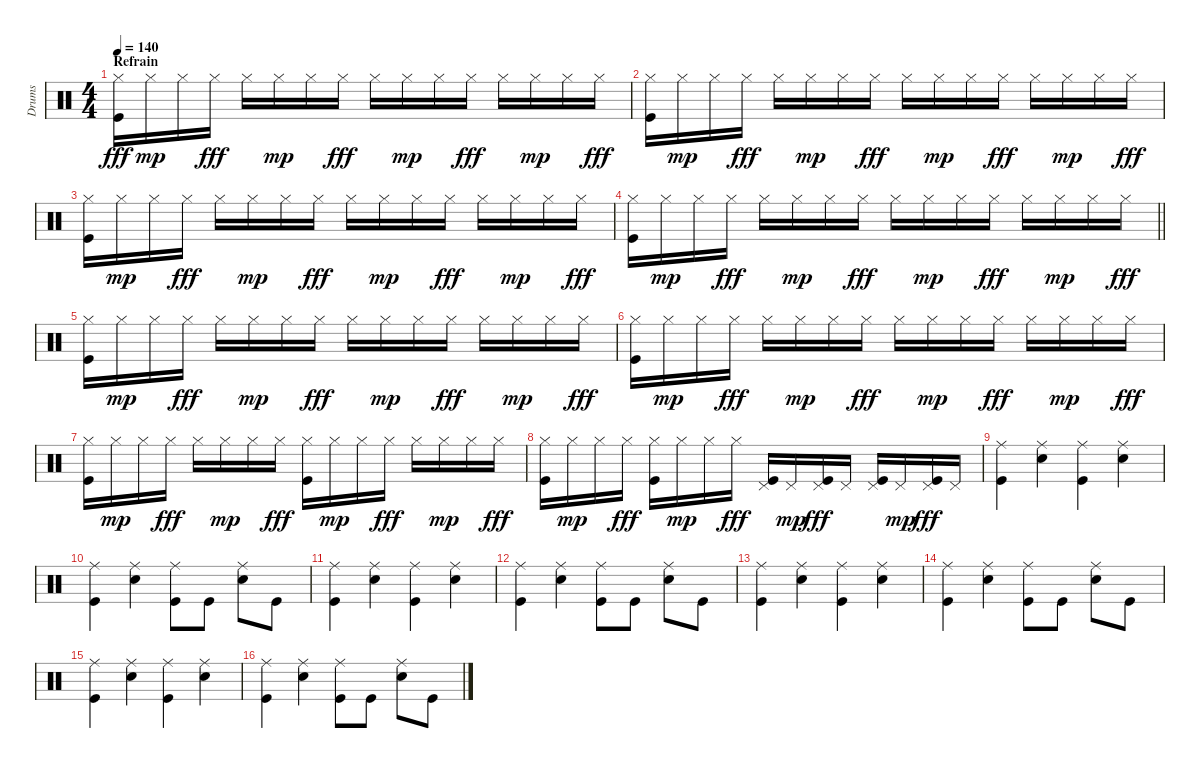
\track ("Drums" "Drums") {instrument percussion}
\staff {score}
\articulation defaults
\ts (4 4)
\section ("" "Refrain")
\tempo 140
\clef neutral
\ks c
("Hi-Hat (closed)" "Kick (hit)").16{dy fff} "Hi-Hat (closed)".16{dy mp} "Hi-Hat (closed)".16 "Hi-Hat (closed)".16{dy fff} "Hi-Hat (closed)".16 "Hi-Hat (closed)".16{dy mp} "Hi-Hat (closed)".16 "Hi-Hat (closed)".16{dy fff} "Hi-Hat (closed)".16 "Hi-Hat (closed)".16{dy mp} "Hi-Hat (closed)".16 "Hi-Hat (closed)".16{dy fff} "Hi-Hat (closed)".16 "Hi-Hat (closed)".16{dy mp} "Hi-Hat (closed)".16 "Hi-Hat (closed)".16{dy fff} |
("Hi-Hat (closed)" "Kick (hit)").16 "Hi-Hat (closed)".16{dy mp} "Hi-Hat (closed)".16 "Hi-Hat (closed)".16{dy fff} "Hi-Hat (closed)".16 "Hi-Hat (closed)".16{dy mp} "Hi-Hat (closed)".16 "Hi-Hat (closed)".16{dy fff} "Hi-Hat (closed)".16 "Hi-Hat (closed)".16{dy mp} "Hi-Hat (closed)".16 "Hi-Hat (closed)".16{dy fff} "Hi-Hat (closed)".16 "Hi-Hat (closed)".16{dy mp} "Hi-Hat (closed)".16 "Hi-Hat (closed)".16{dy fff} |
("Hi-Hat (closed)" "Kick (hit)").16 "Hi-Hat (closed)".16{dy mp} "Hi-Hat (closed)".16 "Hi-Hat (closed)".16{dy fff} "Hi-Hat (closed)".16 "Hi-Hat (closed)".16{dy mp} "Hi-Hat (closed)".16 "Hi-Hat (closed)".16{dy fff} "Hi-Hat (closed)".16 "Hi-Hat (closed)".16{dy mp} "Hi-Hat (closed)".16 "Hi-Hat (closed)".16{dy fff} "Hi-Hat (closed)".16 "Hi-Hat (closed)".16{dy mp} "Hi-Hat (closed)".16 "Hi-Hat (closed)".16{dy fff} |
\barLineRight lightlight
("Hi-Hat (closed)" "Kick (hit)").16 "Hi-Hat (closed)".16{dy mp} "Hi-Hat (closed)".16 "Hi-Hat (closed)".16{dy fff} "Hi-Hat (closed)".16 "Hi-Hat (closed)".16{dy mp} "Hi-Hat (closed)".16 "Hi-Hat (closed)".16{dy fff} "Hi-Hat (closed)".16 "Hi-Hat (closed)".16{dy mp} "Hi-Hat (closed)".16 "Hi-Hat (closed)".16{dy fff} "Hi-Hat (closed)".16 "Hi-Hat (closed)".16{dy mp} "Hi-Hat (closed)".16 "Hi-Hat (closed)".16{dy fff} |
("Hi-Hat (closed)" "Kick (hit)").16 "Hi-Hat (closed)".16{dy mp} "Hi-Hat (closed)".16 "Hi-Hat (closed)".16{dy fff} "Hi-Hat (closed)".16 "Hi-Hat (closed)".16{dy mp} "Hi-Hat (closed)".16 "Hi-Hat (closed)".16{dy fff} "Hi-Hat (closed)".16 "Hi-Hat (closed)".16{dy mp} "Hi-Hat (closed)".16 "Hi-Hat (closed)".16{dy fff} "Hi-Hat (closed)".16 "Hi-Hat (closed)".16{dy mp} "Hi-Hat (closed)".16 "Hi-Hat (closed)".16{dy fff} |
("Hi-Hat (closed)" "Kick (hit)").16 "Hi-Hat (closed)".16{dy mp} "Hi-Hat (closed)".16 "Hi-Hat (closed)".16{dy fff} "Hi-Hat (closed)".16 "Hi-Hat (closed)".16{dy mp} "Hi-Hat (closed)".16 "Hi-Hat (closed)".16{dy fff} "Hi-Hat (closed)".16 "Hi-Hat (closed)".16{dy mp} "Hi-Hat (closed)".16 "Hi-Hat (closed)".16{dy fff} "Hi-Hat (closed)".16 "Hi-Hat (closed)".16{dy mp} "Hi-Hat (closed)".16 "Hi-Hat (closed)".16{dy fff} |
("Hi-Hat (closed)" "Kick (hit)").16 "Hi-Hat (closed)".16{dy mp} "Hi-Hat (closed)".16 "Hi-Hat (closed)".16{dy fff} "Hi-Hat (closed)".16 "Hi-Hat (closed)".16{dy mp} "Hi-Hat (closed)".16 "Hi-Hat (closed)".16{dy fff} ("Hi-Hat (closed)" "Kick (hit)").16 "Hi-Hat (closed)".16{dy mp} "Hi-Hat (closed)".16 "Hi-Hat (closed)".16{dy fff} "Hi-Hat (closed)".16 "Hi-Hat (closed)".16{dy mp} "Hi-Hat (closed)".16 "Hi-Hat (closed)".16{dy fff} |
("Hi-Hat (closed)" "Kick (hit)").16 "Hi-Hat (closed)".16{dy mp} "Hi-Hat (closed)".16 "Hi-Hat (closed)".16{dy fff} ("Hi-Hat (closed)" "Kick (hit)").16 "Hi-Hat (closed)".16{dy mp} "Hi-Hat (closed)".16 "Hi-Hat (closed)".16{dy fff} ("Pedal Hi-Hat (hit)" "Kick (hit)").16 "Pedal Hi-Hat (hit)".16{dy mp} ("Pedal Hi-Hat (hit)" "Kick (hit)").16{dy fff} "Pedal Hi-Hat (hit)".16 ("Pedal Hi-Hat (hit)" "Kick (hit)").16 "Pedal Hi-Hat (hit)".16{dy mp} ("Pedal Hi-Hat (hit)" "Kick (hit)").16{dy fff} "Pedal Hi-Hat (hit)".16 |
("Ride (middle)" "Kick (hit)").4 ("Ride (middle)" "Snare (hit) 2").4 ("Ride (middle)" "Kick (hit)").4 ("Ride (middle)" "Snare (hit) 2").4 |
("Ride (middle)" "Kick (hit)").4 ("Ride (middle)" "Snare (hit) 2").4 ("Ride (middle)" "Kick (hit)").8 "Kick (hit)".8 ("Ride (middle)" "Snare (hit) 2").8 "Kick (hit)".8 |
("Ride (middle)" "Kick (hit)").4 ("Ride (middle)" "Snare (hit) 2").4 ("Ride (middle)" "Kick (hit)").4 ("Ride (middle)" "Snare (hit) 2").4 |
("Ride (middle)" "Kick (hit)").4 ("Ride (middle)" "Snare (hit) 2").4 ("Ride (middle)" "Kick (hit)").8 "Kick (hit)".8 ("Ride (middle)" "Snare (hit) 2").8 "Kick (hit)".8 |
("Ride (middle)" "Kick (hit)").4 ("Ride (middle)" "Snare (hit) 2").4 ("Ride (middle)" "Kick (hit)").4 ("Ride (middle)" "Snare (hit) 2").4 |
("Ride (middle)" "Kick (hit)").4 ("Ride (middle)" "Snare (hit) 2").4 ("Ride (middle)" "Kick (hit)").8 "Kick (hit)".8 ("Ride (middle)" "Snare (hit) 2").8 "Kick (hit)".8 |
("Ride (middle)" "Kick (hit)").4 ("Ride (middle)" "Snare (hit) 2").4 ("Ride (middle)" "Kick (hit)").4 ("Ride (middle)" "Snare (hit) 2").4 |
("Ride (middle)" "Kick (hit)").4 ("Ride (middle)" "Snare (hit) 2").4 ("Ride (middle)" "Kick (hit)").8 "Kick (hit)".8 ("Ride (middle)" "Snare (hit) 2").8 "Kick (hit)".8
